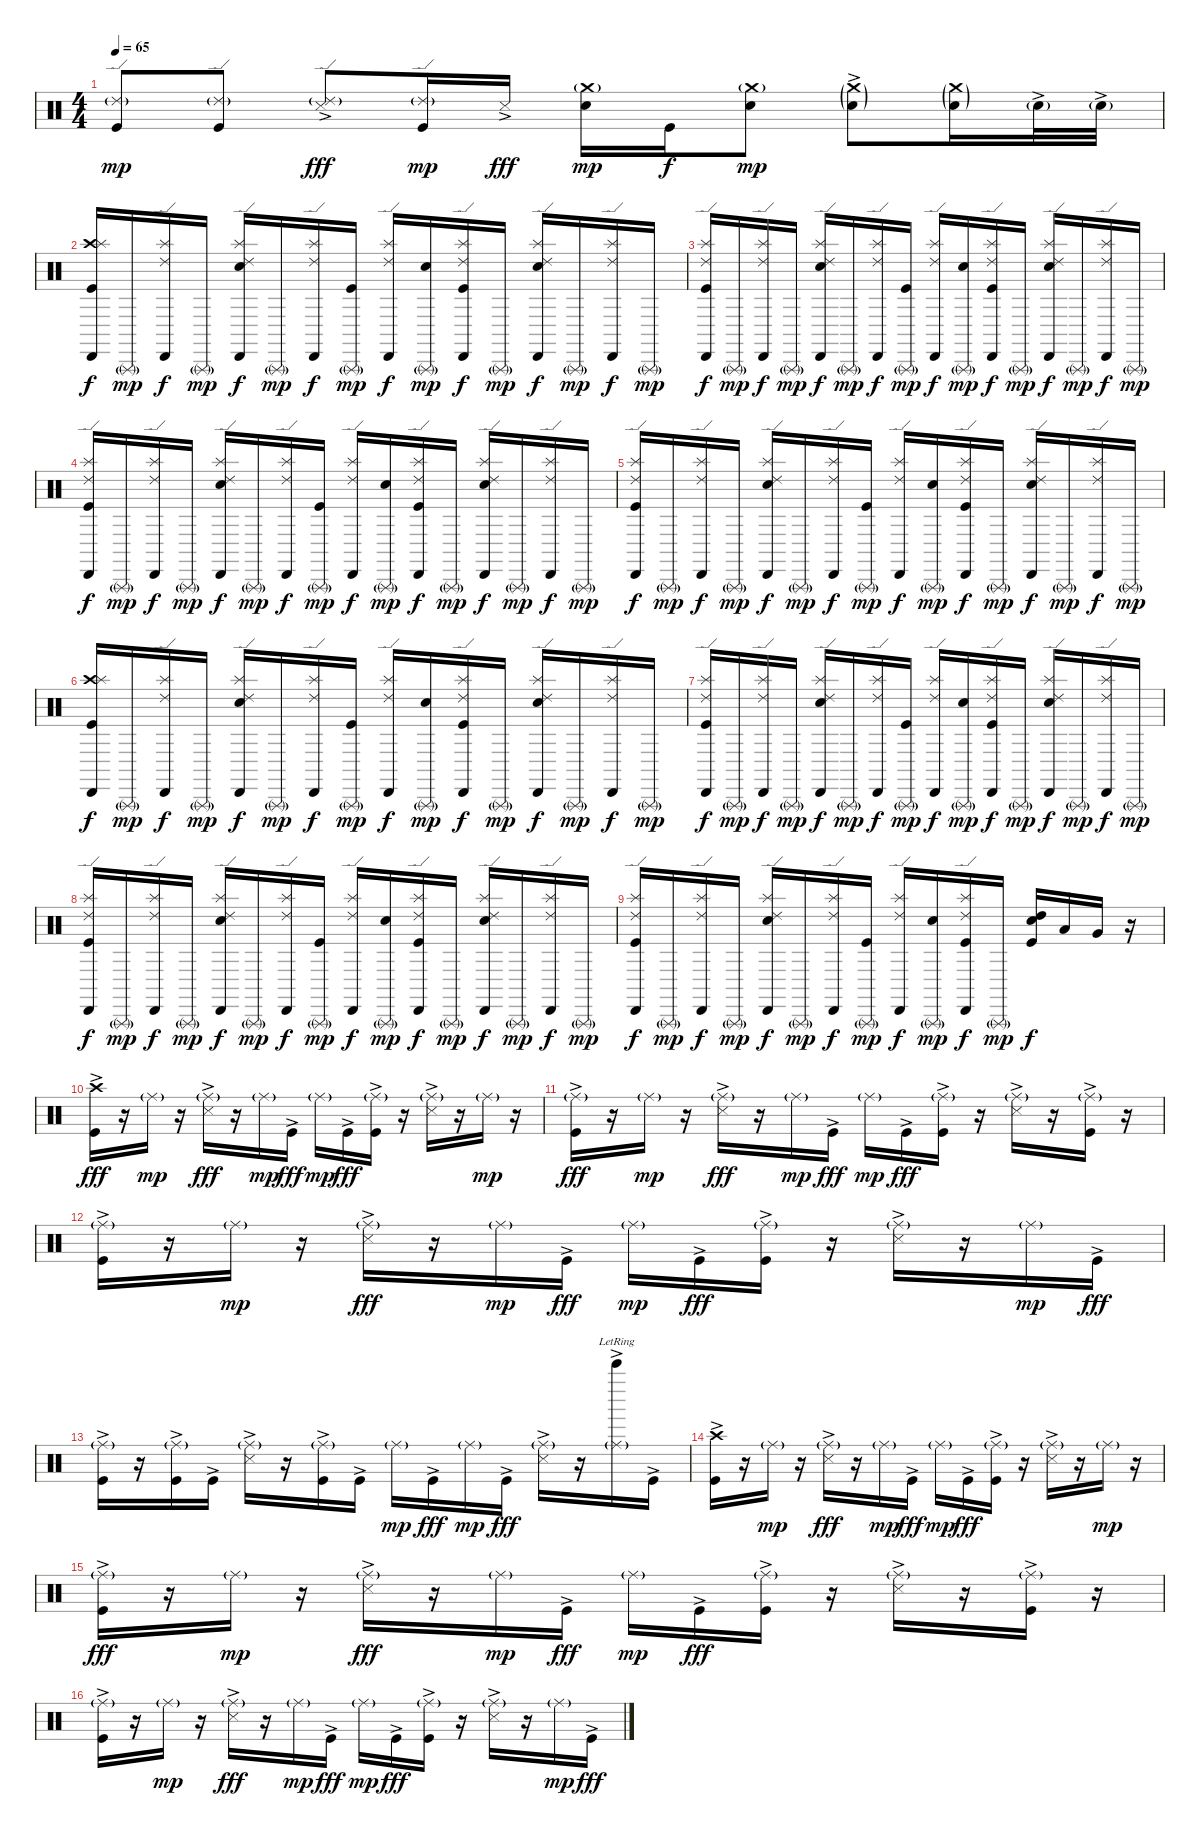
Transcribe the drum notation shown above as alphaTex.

\track "" {instrument percussion}
\staff {score}
\articulation defaults
\ts (4 4)
\tempo 65
\clef neutral
\ks c
("Ride (edge) 2"{g} "Kick (hit)").8{dy mp} ("Ride (edge) 2"{g} "Kick (hit)").8 ("Ride (edge) 2"{g} "Snare (side stick) 3"{ac}).8{dy fff} ("Ride (edge) 2"{g} "Kick (hit)").16{dy mp} "Snare (side stick) 3"{ac}.16{dy fff} ("Crash medium (hit)"{g} "Electric Snare (hit)").16{dy mp} "Kick (hit)".16{dy f} ("Crash medium (hit)"{g} "Electric Snare (hit)").8{dy mp} ("Crash medium (hit)"{g} "Electric Snare (hit)"{g ac}).8 ("Crash medium (hit)"{g} "Electric Snare (hit)"{g}).16 "Electric Snare (hit)"{g ac}.32 "Electric Snare (hit)"{g ac}.32 |
("Crash high (hit)" "Splash (hit)" "Cabasa (hit)" "Kick (hit)").16{dy f} "Triangle (rnute)"{g}.16{dy mp} ("Ride (edge) 2" "Splash (hit)" "Cabasa (hit)").16{dy f} "Triangle (rnute)"{g}.16{dy mp} ("Ride (edge) 2" "Splash (hit)" "Cabasa (hit)" "Electric Snare (hit)").16{dy f} "Triangle (rnute)"{g}.16{dy mp} ("Ride (edge) 2" "Splash (hit)" "Cabasa (hit)").16{dy f} ("Triangle (rnute)"{g} "Kick (hit)").16{dy mp} ("Ride (edge) 2" "Splash (hit)" "Cabasa (hit)").16{dy f} ("Triangle (rnute)"{g} "Electric Snare (hit)").16{dy mp} ("Ride (edge) 2" "Splash (hit)" "Cabasa (hit)" "Kick (hit)").16{dy f} "Triangle (rnute)"{g}.16{dy mp} ("Ride (edge) 2" "Splash (hit)" "Cabasa (hit)" "Electric Snare (hit)").16{dy f} "Triangle (rnute)"{g}.16{dy mp} ("Ride (edge) 2" "Splash (hit)" "Cabasa (hit)").16{dy f} "Triangle (rnute)"{g}.16{dy mp} |
("Ride (edge) 2" "Splash (hit)" "Cabasa (hit)" "Kick (hit)").16{dy f} "Triangle (rnute)"{g}.16{dy mp} ("Ride (edge) 2" "Splash (hit)" "Cabasa (hit)").16{dy f} "Triangle (rnute)"{g}.16{dy mp} ("Ride (edge) 2" "Splash (hit)" "Cabasa (hit)" "Electric Snare (hit)").16{dy f} "Triangle (rnute)"{g}.16{dy mp} ("Ride (edge) 2" "Splash (hit)" "Cabasa (hit)").16{dy f} ("Triangle (rnute)"{g} "Kick (hit)").16{dy mp} ("Ride (edge) 2" "Splash (hit)" "Cabasa (hit)").16{dy f} ("Triangle (rnute)"{g} "Electric Snare (hit)").16{dy mp} ("Ride (edge) 2" "Splash (hit)" "Cabasa (hit)" "Kick (hit)").16{dy f} "Triangle (rnute)"{g}.16{dy mp} ("Ride (edge) 2" "Splash (hit)" "Cabasa (hit)" "Electric Snare (hit)").16{dy f} "Triangle (rnute)"{g}.16{dy mp} ("Ride (edge) 2" "Splash (hit)" "Cabasa (hit)").16{dy f} "Triangle (rnute)"{g}.16{dy mp} |
("Ride (edge) 2" "Splash (hit)" "Cabasa (hit)" "Kick (hit)").16{dy f} "Triangle (rnute)"{g}.16{dy mp} ("Ride (edge) 2" "Splash (hit)" "Cabasa (hit)").16{dy f} "Triangle (rnute)"{g}.16{dy mp} ("Ride (edge) 2" "Splash (hit)" "Cabasa (hit)" "Electric Snare (hit)").16{dy f} "Triangle (rnute)"{g}.16{dy mp} ("Ride (edge) 2" "Splash (hit)" "Cabasa (hit)").16{dy f} ("Triangle (rnute)"{g} "Kick (hit)").16{dy mp} ("Ride (edge) 2" "Splash (hit)" "Cabasa (hit)").16{dy f} ("Triangle (rnute)"{g} "Electric Snare (hit)").16{dy mp} ("Ride (edge) 2" "Splash (hit)" "Cabasa (hit)" "Kick (hit)").16{dy f} "Triangle (rnute)"{g}.16{dy mp} ("Ride (edge) 2" "Splash (hit)" "Cabasa (hit)" "Electric Snare (hit)").16{dy f} "Triangle (rnute)"{g}.16{dy mp} ("Ride (edge) 2" "Splash (hit)" "Cabasa (hit)").16{dy f} "Triangle (rnute)"{g}.16{dy mp} |
("Ride (edge) 2" "Splash (hit)" "Cabasa (hit)" "Kick (hit)").16{dy f} "Triangle (rnute)"{g}.16{dy mp} ("Ride (edge) 2" "Splash (hit)" "Cabasa (hit)").16{dy f} "Triangle (rnute)"{g}.16{dy mp} ("Ride (edge) 2" "Splash (hit)" "Cabasa (hit)" "Electric Snare (hit)").16{dy f} "Triangle (rnute)"{g}.16{dy mp} ("Ride (edge) 2" "Splash (hit)" "Cabasa (hit)").16{dy f} ("Triangle (rnute)"{g} "Kick (hit)").16{dy mp} ("Ride (edge) 2" "Splash (hit)" "Cabasa (hit)").16{dy f} ("Triangle (rnute)"{g} "Electric Snare (hit)").16{dy mp} ("Ride (edge) 2" "Splash (hit)" "Cabasa (hit)" "Kick (hit)").16{dy f} "Triangle (rnute)"{g}.16{dy mp} ("Ride (edge) 2" "Splash (hit)" "Cabasa (hit)" "Electric Snare (hit)").16{dy f} "Triangle (rnute)"{g}.16{dy mp} ("Ride (edge) 2" "Splash (hit)" "Cabasa (hit)").16{dy f} "Triangle (rnute)"{g}.16{dy mp} |
("Crash high (hit)" "Splash (hit)" "Cabasa (hit)" "Kick (hit)").16{dy f} "Triangle (rnute)"{g}.16{dy mp} ("Ride (edge) 2" "Splash (hit)" "Cabasa (hit)").16{dy f} "Triangle (rnute)"{g}.16{dy mp} ("Ride (edge) 2" "Splash (hit)" "Cabasa (hit)" "Electric Snare (hit)").16{dy f} "Triangle (rnute)"{g}.16{dy mp} ("Ride (edge) 2" "Splash (hit)" "Cabasa (hit)").16{dy f} ("Triangle (rnute)"{g} "Kick (hit)").16{dy mp} ("Ride (edge) 2" "Splash (hit)" "Cabasa (hit)").16{dy f} ("Triangle (rnute)"{g} "Electric Snare (hit)").16{dy mp} ("Ride (edge) 2" "Splash (hit)" "Cabasa (hit)" "Kick (hit)").16{dy f} "Triangle (rnute)"{g}.16{dy mp} ("Ride (edge) 2" "Splash (hit)" "Cabasa (hit)" "Electric Snare (hit)").16{dy f} "Triangle (rnute)"{g}.16{dy mp} ("Ride (edge) 2" "Splash (hit)" "Cabasa (hit)").16{dy f} "Triangle (rnute)"{g}.16{dy mp} |
("Ride (edge) 2" "Splash (hit)" "Cabasa (hit)" "Kick (hit)").16{dy f} "Triangle (rnute)"{g}.16{dy mp} ("Ride (edge) 2" "Splash (hit)" "Cabasa (hit)").16{dy f} "Triangle (rnute)"{g}.16{dy mp} ("Ride (edge) 2" "Splash (hit)" "Cabasa (hit)" "Electric Snare (hit)").16{dy f} "Triangle (rnute)"{g}.16{dy mp} ("Ride (edge) 2" "Splash (hit)" "Cabasa (hit)").16{dy f} ("Triangle (rnute)"{g} "Kick (hit)").16{dy mp} ("Ride (edge) 2" "Splash (hit)" "Cabasa (hit)").16{dy f} ("Triangle (rnute)"{g} "Electric Snare (hit)").16{dy mp} ("Ride (edge) 2" "Splash (hit)" "Cabasa (hit)" "Kick (hit)").16{dy f} "Triangle (rnute)"{g}.16{dy mp} ("Ride (edge) 2" "Splash (hit)" "Cabasa (hit)" "Electric Snare (hit)").16{dy f} "Triangle (rnute)"{g}.16{dy mp} ("Ride (edge) 2" "Splash (hit)" "Cabasa (hit)").16{dy f} "Triangle (rnute)"{g}.16{dy mp} |
("Ride (edge) 2" "Splash (hit)" "Cabasa (hit)" "Kick (hit)").16{dy f} "Triangle (rnute)"{g}.16{dy mp} ("Ride (edge) 2" "Splash (hit)" "Cabasa (hit)").16{dy f} "Triangle (rnute)"{g}.16{dy mp} ("Ride (edge) 2" "Splash (hit)" "Cabasa (hit)" "Electric Snare (hit)").16{dy f} "Triangle (rnute)"{g}.16{dy mp} ("Ride (edge) 2" "Splash (hit)" "Cabasa (hit)").16{dy f} ("Triangle (rnute)"{g} "Kick (hit)").16{dy mp} ("Ride (edge) 2" "Splash (hit)" "Cabasa (hit)").16{dy f} ("Triangle (rnute)"{g} "Electric Snare (hit)").16{dy mp} ("Ride (edge) 2" "Splash (hit)" "Cabasa (hit)" "Kick (hit)").16{dy f} "Triangle (rnute)"{g}.16{dy mp} ("Ride (edge) 2" "Splash (hit)" "Cabasa (hit)" "Electric Snare (hit)").16{dy f} "Triangle (rnute)"{g}.16{dy mp} ("Ride (edge) 2" "Splash (hit)" "Cabasa (hit)").16{dy f} "Triangle (rnute)"{g}.16{dy mp} |
("Ride (edge) 2" "Splash (hit)" "Cabasa (hit)" "Kick (hit)").16{dy f} "Triangle (rnute)"{g}.16{dy mp} ("Ride (edge) 2" "Splash (hit)" "Cabasa (hit)").16{dy f} "Triangle (rnute)"{g}.16{dy mp} ("Ride (edge) 2" "Splash (hit)" "Cabasa (hit)" "Electric Snare (hit)").16{dy f} "Triangle (rnute)"{g}.16{dy mp} ("Ride (edge) 2" "Splash (hit)" "Cabasa (hit)").16{dy f} ("Triangle (rnute)"{g} "Kick (hit)").16{dy mp} ("Ride (edge) 2" "Splash (hit)" "Cabasa (hit)").16{dy f} ("Triangle (rnute)"{g} "Electric Snare (hit)").16{dy mp} ("Ride (edge) 2" "Splash (hit)" "Cabasa (hit)" "Kick (hit)").16{dy f} "Triangle (rnute)"{g}.16{dy mp} ("Electric Snare (hit)" "High Tom (hit)" "Kick (hit)").16{dy f} "Low Tom (hit)".16 "Very Low Tom (hit)".16 r.16 |
("Crash high (hit)" "Kick (hit)"{ac}).16{dy fff} r.16 "Ride (middle)"{g}.16{dy mp} r.16 ("Ride (middle)"{g} "Snare (side stick) 3"{ac}).16{dy fff} r.16 "Ride (middle)"{g}.16{dy mp} "Kick (hit)"{ac}.16{dy fff} "Ride (middle)"{g}.16{dy mp} "Kick (hit)"{ac}.16{dy fff} ("Ride (middle)"{g} "Kick (hit)"{ac}).16 r.16 ("Ride (middle)"{g} "Snare (side stick) 3"{ac}).16 r.16 "Ride (middle)"{g}.16{dy mp} r.16 |
("Ride (middle)"{g} "Kick (hit)"{ac}).16{dy fff} r.16 "Ride (middle)"{g}.16{dy mp} r.16 ("Ride (middle)"{g} "Snare (side stick) 3"{ac}).16{dy fff} r.16 "Ride (middle)"{g}.16{dy mp} "Kick (hit)"{ac}.16{dy fff} "Ride (middle)"{g}.16{dy mp} "Kick (hit)"{ac}.16{dy fff} ("Ride (middle)"{g} "Kick (hit)"{ac}).16 r.16 ("Ride (middle)"{g} "Snare (side stick) 3"{ac}).16 r.16 ("Ride (middle)"{g} "Kick (hit)"{ac}).16 r.16 |
("Ride (middle)"{g} "Kick (hit)"{ac}).16 r.16 "Ride (middle)"{g}.16{dy mp} r.16 ("Ride (middle)"{g} "Snare (side stick) 3"{ac}).16{dy fff} r.16 "Ride (middle)"{g}.16{dy mp} "Kick (hit)"{ac}.16{dy fff} "Ride (middle)"{g}.16{dy mp} "Kick (hit)"{ac}.16{dy fff} ("Ride (middle)"{g} "Kick (hit)"{ac}).16 r.16 ("Ride (middle)"{g} "Snare (side stick) 3"{ac}).16 r.16 "Ride (middle)"{g}.16{dy mp} "Kick (hit)"{ac}.16{dy fff} |
("Ride (middle)"{g} "Kick (hit)"{ac}).16 r.16 ("Ride (middle)"{g} "Kick (hit)"{ac}).16 "Kick (hit)"{ac}.16 ("Ride (middle)"{g} "Snare (side stick) 3"{ac}).16 r.16 ("Ride (middle)"{g} "Kick (hit)"{ac}).16 "Kick (hit)"{ac}.16 "Ride (middle)"{g}.16{dy mp} "Kick (hit)"{ac}.16{dy fff} "Ride (middle)"{g}.16{txt "" dy mp} "Kick (hit)"{ac}.16{dy fff} ("Ride (middle)"{g} "Snare (side stick) 3"{ac}).16 r.16 ("Ride (middle)"{g} "Bell Tree (hit)"{ac lr}).16 "Kick (hit)"{ac}.16 |
("Crash high (hit)" "Kick (hit)"{ac}).16 r.16 "Ride (middle)"{g}.16{dy mp} r.16 ("Ride (middle)"{g} "Snare (side stick) 3"{ac}).16{dy fff} r.16 "Ride (middle)"{g}.16{dy mp} "Kick (hit)"{ac}.16{dy fff} "Ride (middle)"{g}.16{dy mp} "Kick (hit)"{ac}.16{dy fff} ("Ride (middle)"{g} "Kick (hit)"{ac}).16 r.16 ("Ride (middle)"{g} "Snare (side stick) 3"{ac}).16 r.16 "Ride (middle)"{g}.16{dy mp} r.16 |
("Ride (middle)"{g} "Kick (hit)"{ac}).16{dy fff} r.16 "Ride (middle)"{g}.16{dy mp} r.16 ("Ride (middle)"{g} "Snare (side stick) 3"{ac}).16{dy fff} r.16 "Ride (middle)"{g}.16{dy mp} "Kick (hit)"{ac}.16{dy fff} "Ride (middle)"{g}.16{dy mp} "Kick (hit)"{ac}.16{dy fff} ("Ride (middle)"{g} "Kick (hit)"{ac}).16 r.16 ("Ride (middle)"{g} "Snare (side stick) 3"{ac}).16 r.16 ("Ride (middle)"{g} "Kick (hit)"{ac}).16 r.16 |
("Ride (middle)"{g} "Kick (hit)"{ac}).16 r.16 "Ride (middle)"{g}.16{dy mp} r.16 ("Ride (middle)"{g} "Snare (side stick) 3"{ac}).16{dy fff} r.16 "Ride (middle)"{g}.16{dy mp} "Kick (hit)"{ac}.16{dy fff} "Ride (middle)"{g}.16{dy mp} "Kick (hit)"{ac}.16{dy fff} ("Ride (middle)"{g} "Kick (hit)"{ac}).16 r.16 ("Ride (middle)"{g} "Snare (side stick) 3"{ac}).16 r.16 "Ride (middle)"{g}.16{dy mp} "Kick (hit)"{ac}.16{dy fff}
